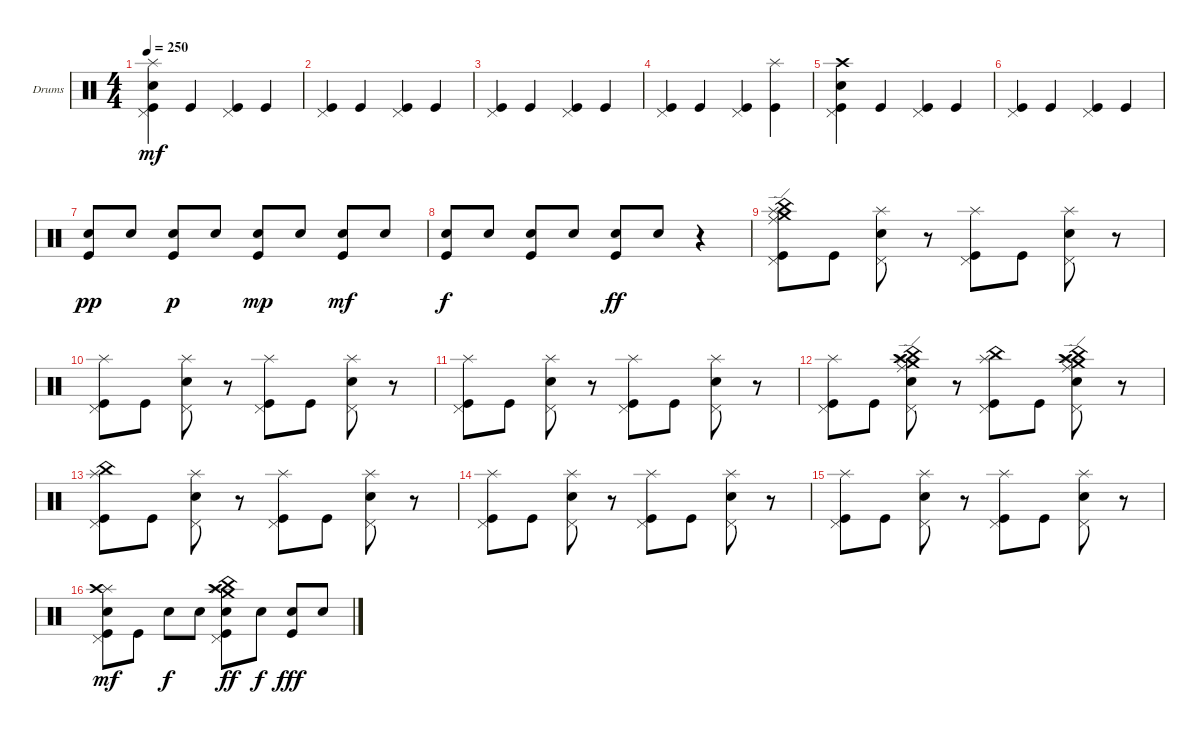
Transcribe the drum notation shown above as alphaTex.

\defaultSystemsLayout 4
\bracketExtendMode groupsimilarinstruments
\firstSystemTrackNameOrientation horizontal
\otherSystemsTrackNameOrientation horizontal
\track ("Драмки" "Drums") {instrument percussion}
\staff {score}
\articulation defaults
\ts (4 4)
\tempo 250
\clef neutral
\scale
0.474178
\ks c
("Kick (hit)" "Snare (hit) 2" "Pedal Hi-Hat (hit)" "Splash (hit)").4{dy mf} "Kick (hit)".4 ("Kick (hit)" "Pedal Hi-Hat (hit)").4 "Kick (hit)".4 |
\scale
0.262911 ("Kick (hit)" "Pedal Hi-Hat (hit)").4 "Kick (hit)".4 ("Kick (hit)" "Pedal Hi-Hat (hit)").4 "Kick (hit)".4 |
\scale
0.262911 ("Kick (hit)" "Pedal Hi-Hat (hit)").4 "Kick (hit)".4 ("Kick (hit)" "Pedal Hi-Hat (hit)").4 "Kick (hit)".4 |
\scale
0.333333 ("Kick (hit)" "Pedal Hi-Hat (hit)").4 "Kick (hit)".4 ("Kick (hit)" "Pedal Hi-Hat (hit)").4 ("Kick (hit)" "Splash (hit)").4 |
\scale
0.333333 ("Kick (hit)" "Snare (hit) 2" "Pedal Hi-Hat (hit)" "Crash high (hit)").4 "Kick (hit)".4 ("Kick (hit)" "Pedal Hi-Hat (hit)").4 "Kick (hit)".4 |
\scale
0.333333 ("Kick (hit)" "Pedal Hi-Hat (hit)").4 "Kick (hit)".4 ("Kick (hit)" "Pedal Hi-Hat (hit)").4 "Kick (hit)".4 |
\scale
0.333333 ("Snare (hit) 2" "Kick (hit)").8{dy pp} "Snare (hit) 2".8 ("Snare (hit) 2" "Kick (hit)").8{dy p} "Snare (hit) 2".8 ("Snare (hit) 2" "Kick (hit)").8{dy mp} "Snare (hit) 2".8 ("Snare (hit) 2" "Kick (hit)").8{dy mf} "Snare (hit) 2".8 |
\scale
0.333333 ("Snare (hit) 2" "Kick (hit)").8{dy f} "Snare (hit) 2".8 ("Snare (hit) 2" "Kick (hit)").8 "Snare (hit) 2".8 ("Snare (hit) 2" "Kick (hit)").8{dy ff} "Snare (hit) 2".8 r.4 |
\scale
0.333333 ("Splash (hit)" "Kick (hit)" "Crash medium (hit)" "China (hit)" "Ride (edge)" "Pedal Hi-Hat (hit)").8 "Kick (hit)".8 ("Snare (hit) 2" "Pedal Hi-Hat (hit)" "Splash (hit)").8 r.8 ("Splash (hit)" "Kick (hit)" "Pedal Hi-Hat (hit)").8 "Kick (hit)".8 ("Snare (hit) 2" "Pedal Hi-Hat (hit)" "Splash (hit)").8 r.8 |
\scale
0.333333 ("Kick (hit)" "Splash (hit)" "Pedal Hi-Hat (hit)").8 "Kick (hit)".8 ("Snare (hit) 2" "Splash (hit)" "Pedal Hi-Hat (hit)").8 r.8 ("Kick (hit)" "Splash (hit)" "Pedal Hi-Hat (hit)").8 "Kick (hit)".8 ("Snare (hit) 2" "Splash (hit)" "Pedal Hi-Hat (hit)").8 r.8 |
\scale
0.333333 ("Kick (hit)" "Splash (hit)" "Pedal Hi-Hat (hit)").8 "Kick (hit)".8 ("Snare (hit) 2" "Splash (hit)" "Pedal Hi-Hat (hit)").8 r.8 ("Kick (hit)" "Splash (hit)" "Pedal Hi-Hat (hit)").8 "Kick (hit)".8 ("Snare (hit) 2" "Splash (hit)" "Pedal Hi-Hat (hit)").8 r.8 |
\scale
0.333333 ("Kick (hit)" "Splash (hit)" "Pedal Hi-Hat (hit)").8 "Kick (hit)".8 ("Snare (hit) 2" "Splash (hit)" "Pedal Hi-Hat (hit)" "China (hit)" "Ride (edge)" "Crash high (hit)" "Crash medium (hit)").8 r.8 ("Splash (hit)" "Pedal Hi-Hat (hit)" "China (hit)" "Kick (hit)").8 "Kick (hit)".8 ("Snare (hit) 2" "Splash (hit)" "Pedal Hi-Hat (hit)" "China (hit)" "Crash high (hit)" "Ride (edge)" "Crash medium (hit)").8 r.8 |
\scale
0.333333 ("Splash (hit)" "Kick (hit)" "China (hit)" "Pedal Hi-Hat (hit)").8 "Kick (hit)".8 ("Snare (hit) 2" "Splash (hit)" "Pedal Hi-Hat (hit)").8 r.8 ("Kick (hit)" "Splash (hit)" "Pedal Hi-Hat (hit)").8 "Kick (hit)".8 ("Snare (hit) 2" "Splash (hit)" "Pedal Hi-Hat (hit)").8 r.8 |
\scale
0.333333 ("Kick (hit)" "Splash (hit)" "Pedal Hi-Hat (hit)").8 "Kick (hit)".8 ("Snare (hit) 2" "Splash (hit)" "Pedal Hi-Hat (hit)").8 r.8 ("Kick (hit)" "Splash (hit)" "Pedal Hi-Hat (hit)").8 "Kick (hit)".8 ("Snare (hit) 2" "Splash (hit)" "Pedal Hi-Hat (hit)").8 r.8 |
\scale
0.333333 ("Kick (hit)" "Splash (hit)" "Pedal Hi-Hat (hit)").8 "Kick (hit)".8 ("Snare (hit) 2" "Splash (hit)" "Pedal Hi-Hat (hit)").8 r.8 ("Kick (hit)" "Splash (hit)" "Pedal Hi-Hat (hit)").8 "Kick (hit)".8 ("Snare (hit) 2" "Splash (hit)" "Pedal Hi-Hat (hit)").8 r.8 |
\scale
0.333333 ("Snare (hit) 2" "Splash (hit)" "Pedal Hi-Hat (hit)" "Crash high (hit)" "Kick (hit)").8{dy mf} "Kick (hit)".8 "Snare (hit) 2".8{dy f} "Snare (hit) 2".8 ("Snare (hit) 2" "Splash (hit)" "Pedal Hi-Hat (hit)" "Crash medium (hit)" "Crash high (hit)" "China (hit)" "Kick (hit)").8{dy ff} "Snare (hit) 2".8{dy f} ("Snare (hit) 2" "Kick (hit)").8{dy fff} "Snare (hit) 2".8
